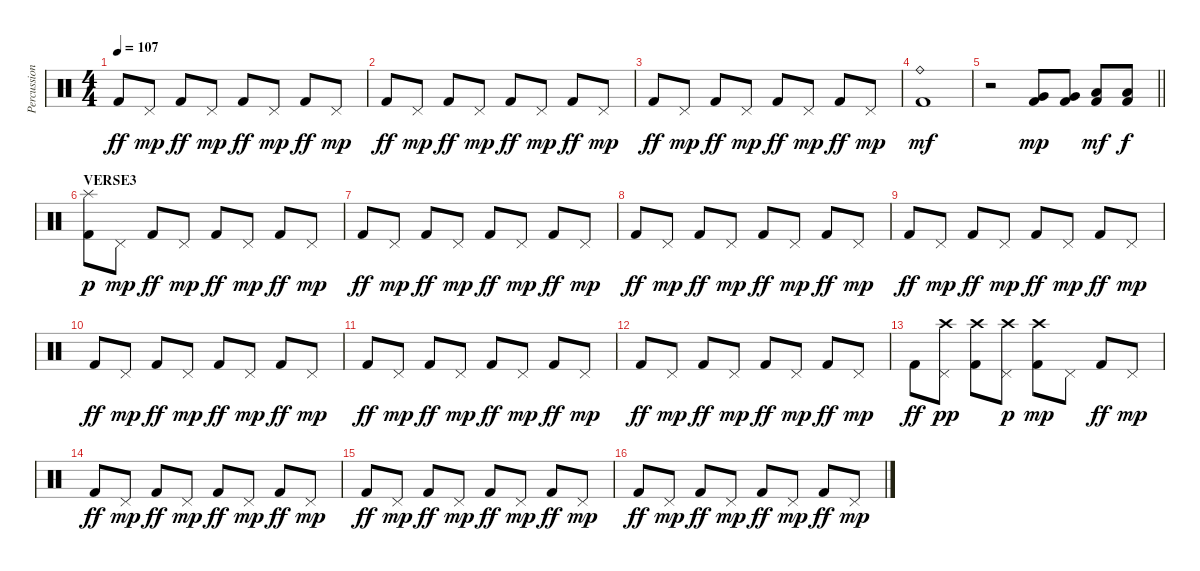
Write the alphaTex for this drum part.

\track ("Percussion" "Percussion") {instrument percussion}
\staff {score}
\articulation defaults
\ts (4 4)
\tempo 107
\clef neutral
\ks c "Kick (hit) 2".8{dy ff} "Pedal Hi-Hat (hit)".8{dy mp} "Kick (hit) 2".8{dy ff} "Pedal Hi-Hat (hit)".8{dy mp} "Kick (hit) 2".8{dy ff} "Pedal Hi-Hat (hit)".8{dy mp} "Kick (hit) 2".8{dy ff} "Pedal Hi-Hat (hit)".8{dy mp}
|
"Kick (hit) 2".8{dy ff} "Pedal Hi-Hat (hit)".8{dy mp} "Kick (hit) 2".8{dy ff} "Pedal Hi-Hat (hit)".8{dy mp} "Kick (hit) 2".8{dy ff} "Pedal Hi-Hat (hit)".8{dy mp} "Kick (hit) 2".8{dy ff} "Pedal Hi-Hat (hit)".8{dy mp} |
"Kick (hit) 2".8{dy ff} "Pedal Hi-Hat (hit)".8{dy mp} "Kick (hit) 2".8{dy ff} "Pedal Hi-Hat (hit)".8{dy mp} "Kick (hit) 2".8{dy ff} "Pedal Hi-Hat (hit)".8{dy mp} "Kick (hit) 2".8{dy ff} "Pedal Hi-Hat (hit)".8{dy mp} |
("Kick (hit) 2" "Ride (bell)").1{dy mf} |
\barLineRight lightlight
r.2 ("Kick (hit) 2" "Very Low Tom (hit)").8{dy mp} ("Kick (hit) 2" "Very Low Tom (hit)").8 ("Kick (hit) 2" "Low Floor Tom (hit)").8{dy mf} ("Kick (hit) 2" "Low Floor Tom (hit)").8{dy f} |
\section ("" "VERSE3")
("Kick (hit) 2" "Splash (hit)").8{dy p} "Pedal Hi-Hat (hit)".8{dy mp} "Kick (hit) 2".8{dy ff} "Pedal Hi-Hat (hit)".8{dy mp} "Kick (hit) 2".8{dy ff} "Pedal Hi-Hat (hit)".8{dy mp} "Kick (hit) 2".8{dy ff} "Pedal Hi-Hat (hit)".8{dy mp} |
"Kick (hit) 2".8{dy ff} "Pedal Hi-Hat (hit)".8{dy mp} "Kick (hit) 2".8{dy ff} "Pedal Hi-Hat (hit)".8{dy mp} "Kick (hit) 2".8{dy ff} "Pedal Hi-Hat (hit)".8{dy mp} "Kick (hit) 2".8{dy ff} "Pedal Hi-Hat (hit)".8{dy mp} |
"Kick (hit) 2".8{dy ff} "Pedal Hi-Hat (hit)".8{dy mp} "Kick (hit) 2".8{dy ff} "Pedal Hi-Hat (hit)".8{dy mp} "Kick (hit) 2".8{dy ff} "Pedal Hi-Hat (hit)".8{dy mp} "Kick (hit) 2".8{dy ff} "Pedal Hi-Hat (hit)".8{dy mp} |
"Kick (hit) 2".8{dy ff} "Pedal Hi-Hat (hit)".8{dy mp} "Kick (hit) 2".8{dy ff} "Pedal Hi-Hat (hit)".8{dy mp} "Kick (hit) 2".8{dy ff} "Pedal Hi-Hat (hit)".8{dy mp} "Kick (hit) 2".8{dy ff} "Pedal Hi-Hat (hit)".8{dy mp} |
"Kick (hit) 2".8{dy ff} "Pedal Hi-Hat (hit)".8{dy mp} "Kick (hit) 2".8{dy ff} "Pedal Hi-Hat (hit)".8{dy mp} "Kick (hit) 2".8{dy ff} "Pedal Hi-Hat (hit)".8{dy mp} "Kick (hit) 2".8{dy ff} "Pedal Hi-Hat (hit)".8{dy mp} |
"Kick (hit) 2".8{dy ff} "Pedal Hi-Hat (hit)".8{dy mp} "Kick (hit) 2".8{dy ff} "Pedal Hi-Hat (hit)".8{dy mp} "Kick (hit) 2".8{dy ff} "Pedal Hi-Hat (hit)".8{dy mp} "Kick (hit) 2".8{dy ff} "Pedal Hi-Hat (hit)".8{dy mp} |
"Kick (hit) 2".8{dy ff} "Pedal Hi-Hat (hit)".8{dy mp} "Kick (hit) 2".8{dy ff} "Pedal Hi-Hat (hit)".8{dy mp} "Kick (hit) 2".8{dy ff} "Pedal Hi-Hat (hit)".8{dy mp} "Kick (hit) 2".8{dy ff} "Pedal Hi-Hat (hit)".8{dy mp} |
"Kick (hit) 2".8{dy ff} ("Pedal Hi-Hat (hit)" "Crash high (hit)").8{dy pp} ("Kick (hit) 2" "Crash high (hit)").8 ("Pedal Hi-Hat (hit)" "Crash high (hit)").8{dy p} ("Kick (hit) 2" "Crash high (hit)").8{dy mp} "Pedal Hi-Hat (hit)".8 "Kick (hit) 2".8{dy ff} "Pedal Hi-Hat (hit)".8{dy mp} |
"Kick (hit) 2".8{dy ff} "Pedal Hi-Hat (hit)".8{dy mp} "Kick (hit) 2".8{dy ff} "Pedal Hi-Hat (hit)".8{dy mp} "Kick (hit) 2".8{dy ff} "Pedal Hi-Hat (hit)".8{dy mp} "Kick (hit) 2".8{dy ff} "Pedal Hi-Hat (hit)".8{dy mp} |
"Kick (hit) 2".8{dy ff} "Pedal Hi-Hat (hit)".8{dy mp} "Kick (hit) 2".8{dy ff} "Pedal Hi-Hat (hit)".8{dy mp} "Kick (hit) 2".8{dy ff} "Pedal Hi-Hat (hit)".8{dy mp} "Kick (hit) 2".8{dy ff} "Pedal Hi-Hat (hit)".8{dy mp} |
"Kick (hit) 2".8{dy ff} "Pedal Hi-Hat (hit)".8{dy mp} "Kick (hit) 2".8{dy ff} "Pedal Hi-Hat (hit)".8{dy mp} "Kick (hit) 2".8{dy ff} "Pedal Hi-Hat (hit)".8{dy mp} "Kick (hit) 2".8{dy ff} "Pedal Hi-Hat (hit)".8{dy mp}
